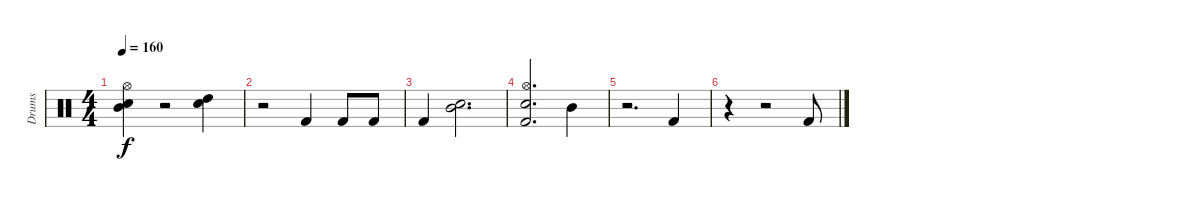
\track ("Drums" "Drums") {instrument percussion}
\staff {score}
\articulation defaults
\ts (4 4)
\tempo 160
\clef neutral
\ks c
("Mid Tom (hit)" "Snare (hit) 2" "Hi-Hat (open)").4{dy f} r.2 ("High Tom (hit)" "Snare (hit) 2").4 |
r.2 "Kick (hit) 2".4 "Kick (hit) 2".8 "Kick (hit) 2".8 |
"Kick (hit) 2".4 ("Mid Tom (hit)" "Snare (hit) 2").2{d} |
("Kick (hit) 2" "Snare (hit) 2" "Hi-Hat (open)").2{d} "Mid Tom (hit)".4 |
r.2{d} "Kick (hit) 2".4 |
r.4 r.2 "Kick (hit) 2".8
